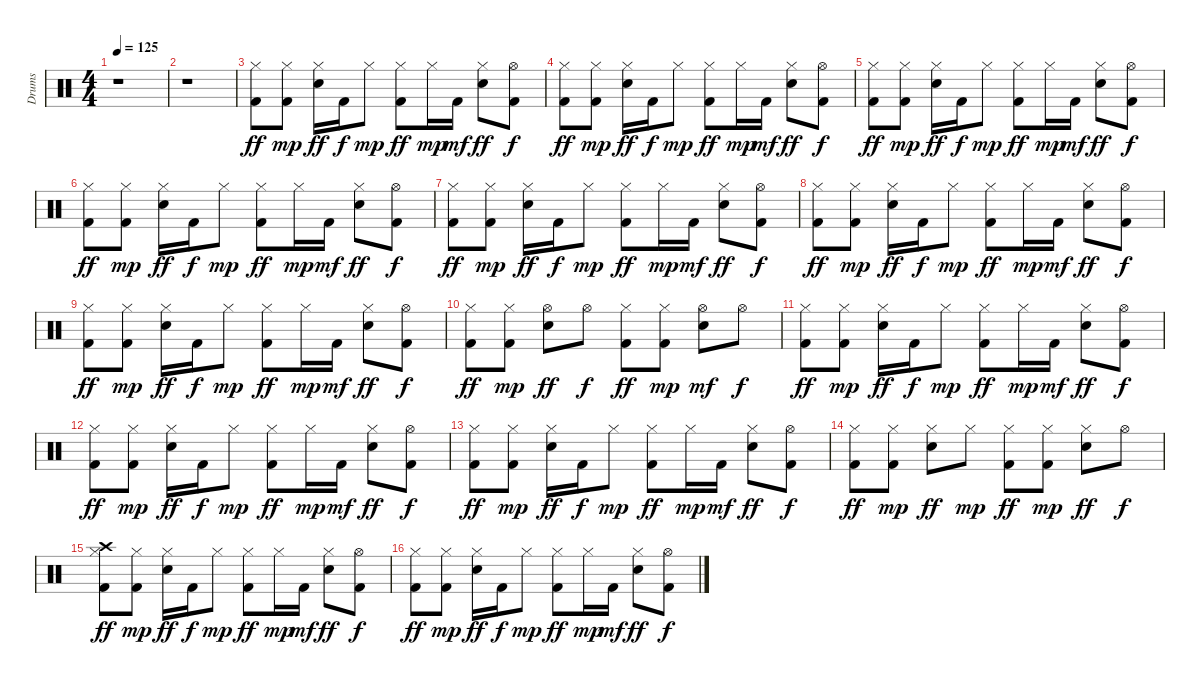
\track ("Drums" "Drums") {instrument percussion}
\staff {score}
\articulation defaults
\ts (4 4)
\tempo 125
\clef neutral
\ks c
r.1{dy ff} |
r.1 |
("Hi-Hat (closed)" "Kick (hit) 2").8 ("Kick (hit) 2" "Hi-Hat (closed)").8{dy mp} ("Hi-Hat (closed)" "Snare (hit) 2").16{dy ff} "Kick (hit) 2".16{dy f} "Hi-Hat (closed)".8{dy mp} ("Kick (hit) 2" "Hi-Hat (closed)").8{dy ff} "Hi-Hat (closed)".16{dy mp} "Kick (hit) 2".16{dy mf} ("Hi-Hat (closed)" "Snare (hit) 2").8{dy ff} ("Kick (hit) 2" "Hi-Hat (open)").8{dy f} |
("Hi-Hat (closed)" "Kick (hit) 2").8{dy ff} ("Hi-Hat (closed)" "Kick (hit) 2").8{dy mp} ("Snare (hit) 2" "Hi-Hat (closed)").16{dy ff} "Kick (hit) 2".16{dy f} "Hi-Hat (closed)".8{dy mp} ("Hi-Hat (closed)" "Kick (hit) 2").8{dy ff} "Hi-Hat (closed)".16{dy mp} "Kick (hit) 2".16{dy mf} ("Snare (hit) 2" "Hi-Hat (closed)").8{dy ff} ("Kick (hit) 2" "Hi-Hat (open)").8{dy f} |
("Hi-Hat (closed)" "Kick (hit) 2").8{dy ff} ("Kick (hit) 2" "Hi-Hat (closed)").8{dy mp} ("Snare (hit) 2" "Hi-Hat (closed)").16{dy ff} "Kick (hit) 2".16{dy f} "Hi-Hat (closed)".8{dy mp} ("Kick (hit) 2" "Hi-Hat (closed)").8{dy ff} "Hi-Hat (closed)".16{dy mp} "Kick (hit) 2".16{dy mf} ("Hi-Hat (closed)" "Snare (hit) 2").8{dy ff} ("Hi-Hat (open)" "Kick (hit) 2").8{dy f} |
("Hi-Hat (closed)" "Kick (hit) 2").8{dy ff} ("Kick (hit) 2" "Hi-Hat (closed)").8{dy mp} ("Hi-Hat (closed)" "Snare (hit) 2").16{dy ff} "Kick (hit) 2".16{dy f} "Hi-Hat (closed)".8{dy mp} ("Hi-Hat (closed)" "Kick (hit) 2").8{dy ff} "Hi-Hat (closed)".16{dy mp} "Kick (hit) 2".16{dy mf} ("Snare (hit) 2" "Hi-Hat (closed)").8{dy ff} ("Kick (hit) 2" "Hi-Hat (open)").8{dy f} |
("Kick (hit) 2" "Hi-Hat (closed)").8{dy ff} ("Hi-Hat (closed)" "Kick (hit) 2").8{dy mp} ("Hi-Hat (closed)" "Snare (hit) 2").16{dy ff} "Kick (hit) 2".16{dy f} "Hi-Hat (closed)".8{dy mp} ("Kick (hit) 2" "Hi-Hat (closed)").8{dy ff} "Hi-Hat (closed)".16{dy mp} "Kick (hit) 2".16{dy mf} ("Hi-Hat (closed)" "Snare (hit) 2").8{dy ff} ("Kick (hit) 2" "Hi-Hat (open)").8{dy f} |
("Hi-Hat (closed)" "Kick (hit) 2").8{dy ff} ("Hi-Hat (closed)" "Kick (hit) 2").8{dy mp} ("Snare (hit) 2" "Hi-Hat (closed)").16{dy ff} "Kick (hit) 2".16{dy f} "Hi-Hat (closed)".8{dy mp} ("Kick (hit) 2" "Hi-Hat (closed)").8{dy ff} "Hi-Hat (closed)".16{dy mp} "Kick (hit) 2".16{dy mf} ("Hi-Hat (closed)" "Snare (hit) 2").8{dy ff} ("Hi-Hat (open)" "Kick (hit) 2").8{dy f} |
("Kick (hit) 2" "Hi-Hat (closed)").8{dy ff} ("Hi-Hat (closed)" "Kick (hit) 2").8{dy mp} ("Hi-Hat (closed)" "Snare (hit) 2").16{dy ff} "Kick (hit) 2".16{dy f} "Hi-Hat (closed)".8{dy mp} ("Kick (hit) 2" "Hi-Hat (closed)").8{dy ff} "Hi-Hat (closed)".16{dy mp} "Kick (hit) 2".16{dy mf} ("Snare (hit) 2" "Hi-Hat (closed)").8{dy ff} ("Kick (hit) 2" "Hi-Hat (open)").8{dy f} |
("Kick (hit) 2" "Hi-Hat (closed)").8{dy ff} ("Hi-Hat (closed)" "Kick (hit) 2").8{dy mp} ("Hi-Hat (open)" "Snare (hit) 2").8{dy ff} "Hi-Hat (open)".8{dy f} ("Kick (hit) 2" "Hi-Hat (closed)").8{dy ff} ("Hi-Hat (closed)" "Kick (hit) 2").8{dy mp} ("Snare (hit) 2" "Hi-Hat (open)").8{dy mf} "Hi-Hat (open)".8{dy f} |
("Kick (hit) 2" "Hi-Hat (closed)").8{dy ff} ("Kick (hit) 2" "Hi-Hat (closed)").8{dy mp} ("Hi-Hat (closed)" "Snare (hit) 2").16{dy ff} "Kick (hit) 2".16{dy f} "Hi-Hat (closed)".8{dy mp} ("Kick (hit) 2" "Hi-Hat (closed)").8{dy ff} "Hi-Hat (closed)".16{dy mp} "Kick (hit) 2".16{dy mf} ("Snare (hit) 2" "Hi-Hat (closed)").8{dy ff} ("Kick (hit) 2" "Hi-Hat (open)").8{dy f} |
("Hi-Hat (closed)" "Kick (hit) 2").8{dy ff} ("Kick (hit) 2" "Hi-Hat (closed)").8{dy mp} ("Snare (hit) 2" "Hi-Hat (closed)").16{dy ff} "Kick (hit) 2".16{dy f} "Hi-Hat (closed)".8{dy mp} ("Hi-Hat (closed)" "Kick (hit) 2").8{dy ff} "Hi-Hat (closed)".16{dy mp} "Kick (hit) 2".16{dy mf} ("Hi-Hat (closed)" "Snare (hit) 2").8{dy ff} ("Hi-Hat (open)" "Kick (hit) 2").8{dy f} |
("Hi-Hat (closed)" "Kick (hit) 2").8{dy ff} ("Hi-Hat (closed)" "Kick (hit) 2").8{dy mp} ("Hi-Hat (closed)" "Snare (hit) 2").16{dy ff} "Kick (hit) 2".16{dy f} "Hi-Hat (closed)".8{dy mp} ("Kick (hit) 2" "Hi-Hat (closed)").8{dy ff} "Hi-Hat (closed)".16{dy mp} "Kick (hit) 2".16{dy mf} ("Hi-Hat (closed)" "Snare (hit) 2").8{dy ff} ("Kick (hit) 2" "Hi-Hat (open)").8{dy f} |
("Kick (hit) 2" "Hi-Hat (closed)").8{dy ff} ("Kick (hit) 2" "Hi-Hat (closed)").8{dy mp} ("Snare (hit) 2" "Hi-Hat (closed)").8{dy ff} "Hi-Hat (closed)".8{dy mp} ("Hi-Hat (closed)" "Kick (hit) 2").8{dy ff} ("Kick (hit) 2" "Hi-Hat (closed)").8{dy mp} ("Hi-Hat (closed)" "Snare (hit) 2").8{dy ff} "Hi-Hat (open)".8{dy f} |
("Kick (hit) 2" "Hi-Hat (closed)" "Crash high (hit)").8{dy ff} ("Hi-Hat (closed)" "Kick (hit) 2").8{dy mp} ("Snare (hit) 2" "Hi-Hat (closed)").16{dy ff} "Kick (hit) 2".16{dy f} "Hi-Hat (closed)".8{dy mp} ("Hi-Hat (closed)" "Kick (hit) 2").8{dy ff} "Hi-Hat (closed)".16{dy mp} "Kick (hit) 2".16{dy mf} ("Snare (hit) 2" "Hi-Hat (closed)").8{dy ff} ("Hi-Hat (open)" "Kick (hit) 2").8{dy f} |
("Kick (hit) 2" "Hi-Hat (closed)").8{dy ff} ("Kick (hit) 2" "Hi-Hat (closed)").8{dy mp} ("Hi-Hat (closed)" "Snare (hit) 2").16{dy ff} "Kick (hit) 2".16{dy f} "Hi-Hat (closed)".8{dy mp} ("Kick (hit) 2" "Hi-Hat (closed)").8{dy ff} "Hi-Hat (closed)".16{dy mp} "Kick (hit) 2".16{dy mf} ("Hi-Hat (closed)" "Snare (hit) 2").8{dy ff} ("Kick (hit) 2" "Hi-Hat (open)").8{dy f}
